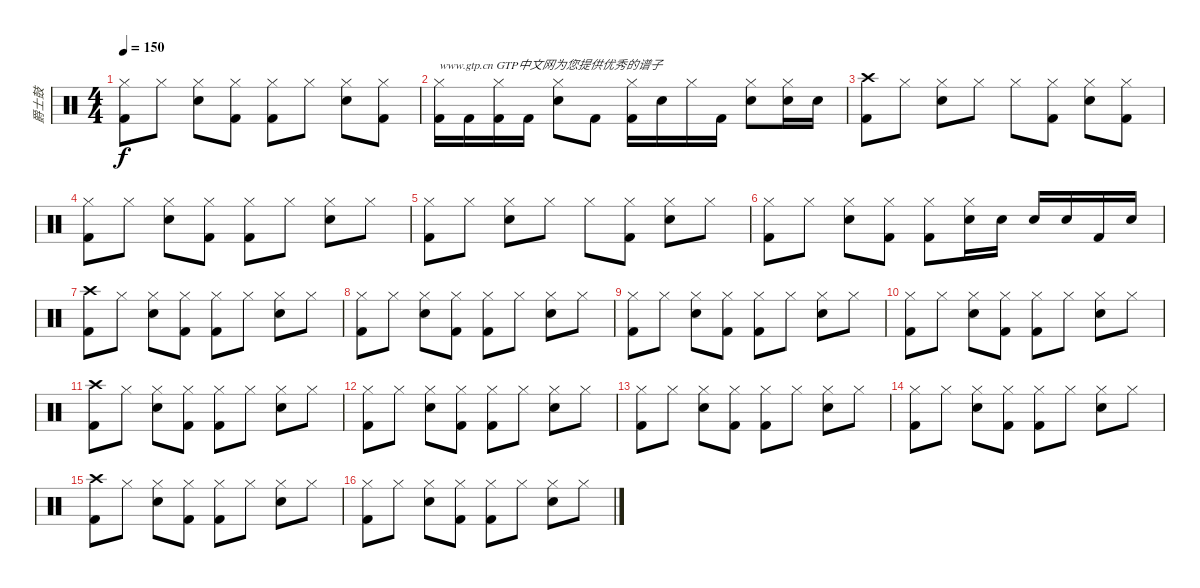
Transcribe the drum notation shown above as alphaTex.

\track ("爵士鼓" "爵士鼓") {instrument percussion}
\staff {score}
\articulation defaults
\ts (4 4)
\tempo 150
\clef neutral
\ks c
("Hi-Hat (closed)" "Kick (hit) 2").8{dy f} "Hi-Hat (closed)".8 ("Hi-Hat (closed)" "Electric Snare (hit)").8 ("Hi-Hat (closed)" "Kick (hit) 2").8 ("Hi-Hat (closed)" "Kick (hit) 2").8 "Hi-Hat (closed)".8 ("Hi-Hat (closed)" "Electric Snare (hit)").8 ("Hi-Hat (closed)" "Kick (hit) 2").8 |
("Hi-Hat (closed)" "Kick (hit) 2").16{txt "www.gtp.cn GTP中文网为您提供优秀的谱子"} "Kick (hit) 2".16 ("Hi-Hat (closed)" "Kick (hit) 2").16 "Kick (hit) 2".16 ("Hi-Hat (closed)" "Electric Snare (hit)").8 "Kick (hit) 2".8 ("Hi-Hat (closed)" "Kick (hit) 2").16 "Electric Snare (hit)".16 "Hi-Hat (closed)".16 "Kick (hit) 2".16 ("Hi-Hat (closed)" "Electric Snare (hit)").8 ("Hi-Hat (closed)" "Electric Snare (hit)").16 "Electric Snare (hit)".16 |
("Crash high (hit)" "Kick (hit) 2").8 "Hi-Hat (closed)".8 ("Hi-Hat (closed)" "Electric Snare (hit)").8 "Hi-Hat (closed)".8 "Hi-Hat (closed)".8 ("Hi-Hat (closed)" "Kick (hit) 2").8 ("Hi-Hat (closed)" "Electric Snare (hit)").8 ("Hi-Hat (closed)" "Kick (hit) 2").8 |
("Hi-Hat (closed)" "Kick (hit) 2").8 "Hi-Hat (closed)".8 ("Hi-Hat (closed)" "Electric Snare (hit)").8 ("Hi-Hat (closed)" "Kick (hit) 2").8 ("Hi-Hat (closed)" "Kick (hit) 2").8 "Hi-Hat (closed)".8 ("Hi-Hat (closed)" "Electric Snare (hit)").8 "Hi-Hat (closed)".8 |
("Hi-Hat (closed)" "Kick (hit) 2").8 "Hi-Hat (closed)".8 ("Hi-Hat (closed)" "Electric Snare (hit)").8 "Hi-Hat (closed)".8 "Hi-Hat (closed)".8 ("Hi-Hat (closed)" "Kick (hit) 2").8 ("Hi-Hat (closed)" "Electric Snare (hit)").8 "Hi-Hat (closed)".8 |
("Hi-Hat (closed)" "Kick (hit) 2").8 "Hi-Hat (closed)".8 ("Hi-Hat (closed)" "Electric Snare (hit)").8 ("Hi-Hat (closed)" "Kick (hit) 2").8 ("Hi-Hat (closed)" "Kick (hit) 2").8 ("Hi-Hat (closed)" "Electric Snare (hit)").16 "Electric Snare (hit)".16 "Electric Snare (hit)".16 "Electric Snare (hit)".16 "Kick (hit) 2".16 "Electric Snare (hit)".16 |
("Crash high (hit)" "Kick (hit) 2").8 "Hi-Hat (closed)".8 ("Hi-Hat (closed)" "Electric Snare (hit)").8 ("Hi-Hat (closed)" "Kick (hit) 2").8 ("Hi-Hat (closed)" "Kick (hit) 2").8 "Hi-Hat (closed)".8 ("Hi-Hat (closed)" "Electric Snare (hit)").8 "Hi-Hat (closed)".8 |
("Hi-Hat (closed)" "Kick (hit) 2").8 "Hi-Hat (closed)".8 ("Hi-Hat (closed)" "Electric Snare (hit)").8 ("Hi-Hat (closed)" "Kick (hit) 2").8 ("Hi-Hat (closed)" "Kick (hit) 2").8 "Hi-Hat (closed)".8 ("Hi-Hat (closed)" "Electric Snare (hit)").8 "Hi-Hat (closed)".8 |
("Hi-Hat (closed)" "Kick (hit) 2").8 "Hi-Hat (closed)".8 ("Hi-Hat (closed)" "Electric Snare (hit)").8 ("Hi-Hat (closed)" "Kick (hit) 2").8 ("Hi-Hat (closed)" "Kick (hit) 2").8 "Hi-Hat (closed)".8 ("Hi-Hat (closed)" "Electric Snare (hit)").8 "Hi-Hat (closed)".8 |
("Hi-Hat (closed)" "Kick (hit) 2").8 "Hi-Hat (closed)".8 ("Hi-Hat (closed)" "Electric Snare (hit)").8 ("Hi-Hat (closed)" "Kick (hit) 2").8 ("Hi-Hat (closed)" "Kick (hit) 2").8 "Hi-Hat (closed)".8 ("Hi-Hat (closed)" "Electric Snare (hit)").8 "Hi-Hat (closed)".8 |
("Crash high (hit)" "Kick (hit) 2").8 "Hi-Hat (closed)".8 ("Hi-Hat (closed)" "Electric Snare (hit)").8 ("Hi-Hat (closed)" "Kick (hit) 2").8 ("Hi-Hat (closed)" "Kick (hit) 2").8 "Hi-Hat (closed)".8 ("Hi-Hat (closed)" "Electric Snare (hit)").8 "Hi-Hat (closed)".8 |
("Hi-Hat (closed)" "Kick (hit) 2").8 "Hi-Hat (closed)".8 ("Hi-Hat (closed)" "Electric Snare (hit)").8 ("Hi-Hat (closed)" "Kick (hit) 2").8 ("Hi-Hat (closed)" "Kick (hit) 2").8 "Hi-Hat (closed)".8 ("Hi-Hat (closed)" "Electric Snare (hit)").8 "Hi-Hat (closed)".8 |
("Hi-Hat (closed)" "Kick (hit) 2").8 "Hi-Hat (closed)".8 ("Hi-Hat (closed)" "Electric Snare (hit)").8 ("Hi-Hat (closed)" "Kick (hit) 2").8 ("Hi-Hat (closed)" "Kick (hit) 2").8 "Hi-Hat (closed)".8 ("Hi-Hat (closed)" "Electric Snare (hit)").8 "Hi-Hat (closed)".8 |
("Hi-Hat (closed)" "Kick (hit) 2").8 "Hi-Hat (closed)".8 ("Hi-Hat (closed)" "Electric Snare (hit)").8 ("Hi-Hat (closed)" "Kick (hit) 2").8 ("Hi-Hat (closed)" "Kick (hit) 2").8 "Hi-Hat (closed)".8 ("Hi-Hat (closed)" "Electric Snare (hit)").8 "Hi-Hat (closed)".8 |
("Crash high (hit)" "Kick (hit) 2").8 "Hi-Hat (closed)".8 ("Hi-Hat (closed)" "Electric Snare (hit)").8 ("Hi-Hat (closed)" "Kick (hit) 2").8 ("Hi-Hat (closed)" "Kick (hit) 2").8 "Hi-Hat (closed)".8 ("Hi-Hat (closed)" "Electric Snare (hit)").8 "Hi-Hat (closed)".8 |
("Hi-Hat (closed)" "Kick (hit) 2").8 "Hi-Hat (closed)".8 ("Hi-Hat (closed)" "Electric Snare (hit)").8 ("Hi-Hat (closed)" "Kick (hit) 2").8 ("Hi-Hat (closed)" "Kick (hit) 2").8 "Hi-Hat (closed)".8 ("Hi-Hat (closed)" "Electric Snare (hit)").8 "Hi-Hat (closed)".8
